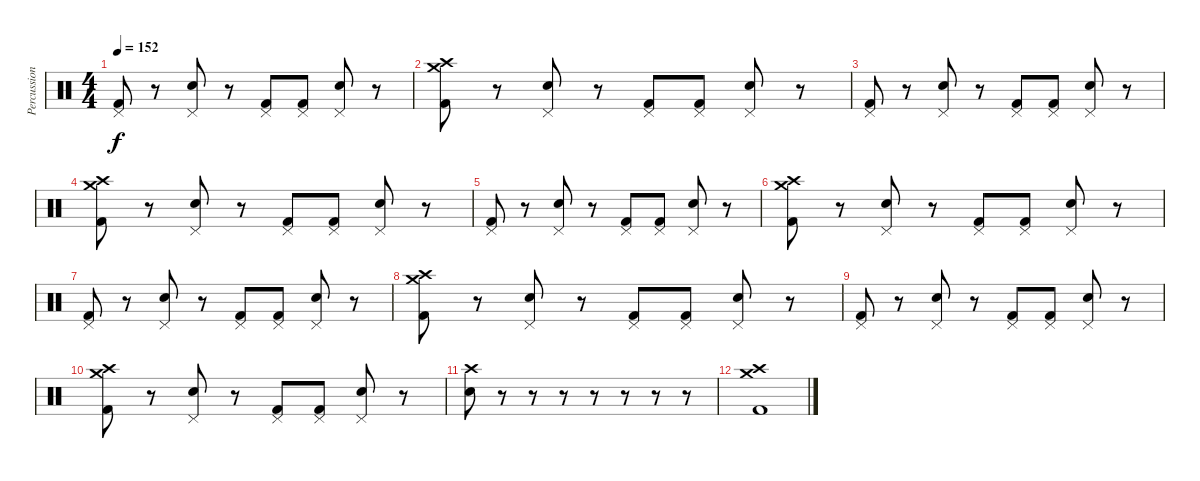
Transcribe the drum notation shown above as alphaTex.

\track ("Percussion" "Percussion") {instrument percussion}
\staff {score}
\articulation defaults
\ts (4 4)
\tempo 152
\clef neutral
\ks c
("Kick (hit) 2" "Pedal Hi-Hat (hit)").8{dy f} r.8 ("Snare (hit) 2" "Pedal Hi-Hat (hit)").8 r.8 ("Kick (hit) 2" "Pedal Hi-Hat (hit)").8 ("Kick (hit) 2" "Pedal Hi-Hat (hit)").8 ("Snare (hit) 2" "Pedal Hi-Hat (hit)").8 r.8 |
("Kick (hit) 2" "Crash high (hit)" "Crash medium (hit)").8 r.8 ("Snare (hit) 2" "Pedal Hi-Hat (hit)").8 r.8 ("Kick (hit) 2" "Pedal Hi-Hat (hit)").8 ("Kick (hit) 2" "Pedal Hi-Hat (hit)").8 ("Snare (hit) 2" "Pedal Hi-Hat (hit)").8 r.8 |
("Kick (hit) 2" "Pedal Hi-Hat (hit)").8 r.8 ("Snare (hit) 2" "Pedal Hi-Hat (hit)").8 r.8 ("Kick (hit) 2" "Pedal Hi-Hat (hit)").8 ("Kick (hit) 2" "Pedal Hi-Hat (hit)").8 ("Snare (hit) 2" "Pedal Hi-Hat (hit)").8 r.8 |
("Kick (hit) 2" "Crash high (hit)" "Crash medium (hit)").8 r.8 ("Snare (hit) 2" "Pedal Hi-Hat (hit)").8 r.8 ("Kick (hit) 2" "Pedal Hi-Hat (hit)").8 ("Kick (hit) 2" "Pedal Hi-Hat (hit)").8 ("Snare (hit) 2" "Pedal Hi-Hat (hit)").8 r.8 |
("Kick (hit) 2" "Pedal Hi-Hat (hit)").8 r.8 ("Snare (hit) 2" "Pedal Hi-Hat (hit)").8 r.8 ("Kick (hit) 2" "Pedal Hi-Hat (hit)").8 ("Kick (hit) 2" "Pedal Hi-Hat (hit)").8 ("Snare (hit) 2" "Pedal Hi-Hat (hit)").8 r.8 |
("Kick (hit) 2" "Crash high (hit)" "Crash medium (hit)").8 r.8 ("Snare (hit) 2" "Pedal Hi-Hat (hit)").8 r.8 ("Kick (hit) 2" "Pedal Hi-Hat (hit)").8 ("Kick (hit) 2" "Pedal Hi-Hat (hit)").8 ("Snare (hit) 2" "Pedal Hi-Hat (hit)").8 r.8 |
("Kick (hit) 2" "Pedal Hi-Hat (hit)").8 r.8 ("Snare (hit) 2" "Pedal Hi-Hat (hit)").8 r.8 ("Kick (hit) 2" "Pedal Hi-Hat (hit)").8 ("Kick (hit) 2" "Pedal Hi-Hat (hit)").8 ("Snare (hit) 2" "Pedal Hi-Hat (hit)").8 r.8 |
("Kick (hit) 2" "Crash high (hit)" "Crash medium (hit)").8 r.8 ("Snare (hit) 2" "Pedal Hi-Hat (hit)").8 r.8 ("Kick (hit) 2" "Pedal Hi-Hat (hit)").8 ("Kick (hit) 2" "Pedal Hi-Hat (hit)").8 ("Snare (hit) 2" "Pedal Hi-Hat (hit)").8 r.8 |
("Kick (hit) 2" "Pedal Hi-Hat (hit)").8 r.8 ("Snare (hit) 2" "Pedal Hi-Hat (hit)").8 r.8 ("Kick (hit) 2" "Pedal Hi-Hat (hit)").8 ("Kick (hit) 2" "Pedal Hi-Hat (hit)").8 ("Snare (hit) 2" "Pedal Hi-Hat (hit)").8 r.8 |
("Kick (hit) 2" "Crash high (hit)" "Crash medium (hit)").8 r.8 ("Snare (hit) 2" "Pedal Hi-Hat (hit)").8 r.8 ("Kick (hit) 2" "Pedal Hi-Hat (hit)").8 ("Kick (hit) 2" "Pedal Hi-Hat (hit)").8 ("Snare (hit) 2" "Pedal Hi-Hat (hit)").8 r.8 |
("Snare (hit) 2" "Crash high (hit)").8 r.8 r.8 r.8 r.8 r.8 r.8 r.8 |
("Crash medium (hit)" "Crash high (hit)" "Kick (hit) 2").1
